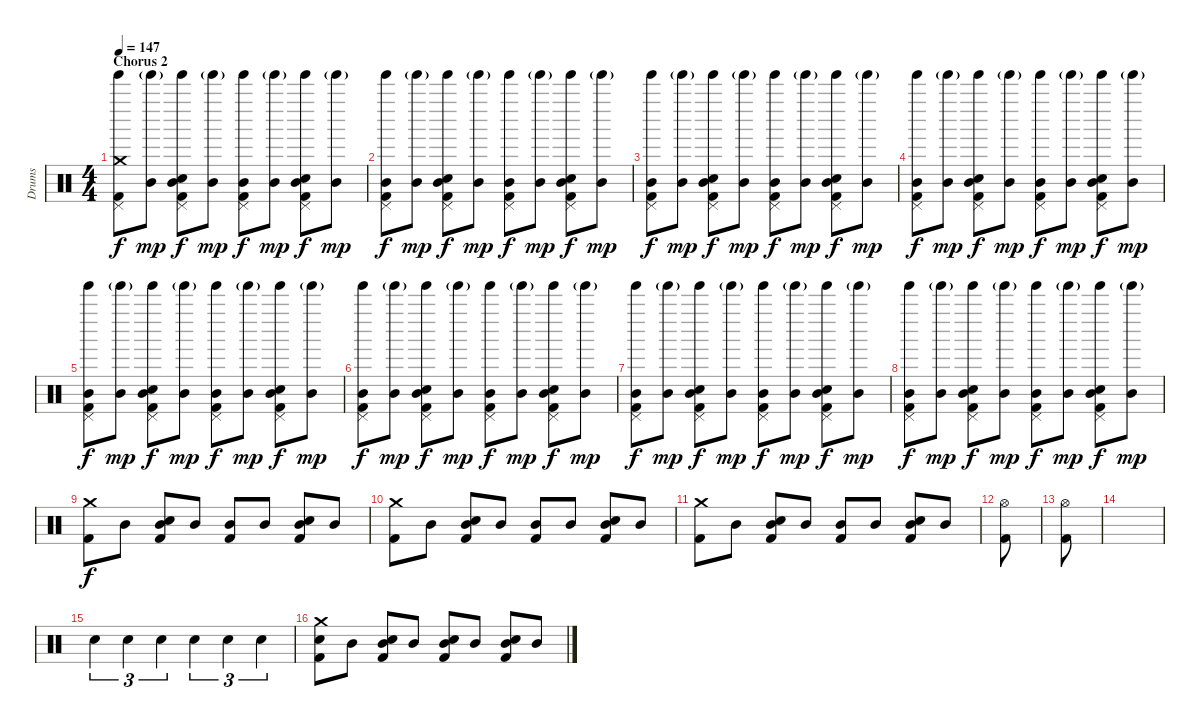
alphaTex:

\track ("Drums" "Drums") {instrument percussion}
\staff {score}
\articulation defaults
\ts (4 4)
\section ("" "Chorus 2")
\tempo 147
\clef neutral
\ks c
("Crash medium (hit)" "Tinkle Bell (hit)" "Pedal Hi-Hat (hit)" "Kick (hit) 2").8{dy f} ("Mid Tom (hit)" "Tinkle Bell (hit)"{g}).8{dy mp} ("Mid Tom (hit)" "Tinkle Bell (hit)" "Electric Snare (hit)" "Pedal Hi-Hat (hit)" "Kick (hit) 2").8{dy f} ("Mid Tom (hit)" "Tinkle Bell (hit)"{g}).8{dy mp} ("Mid Tom (hit)" "Tinkle Bell (hit)" "Pedal Hi-Hat (hit)" "Kick (hit) 2").8{dy f} ("Mid Tom (hit)" "Tinkle Bell (hit)"{g}).8{dy mp} ("Mid Tom (hit)" "Tinkle Bell (hit)" "Electric Snare (hit)" "Pedal Hi-Hat (hit)" "Kick (hit) 2").8{dy f} ("Mid Tom (hit)" "Tinkle Bell (hit)"{g}).8{dy mp} |
("Mid Tom (hit)" "Tinkle Bell (hit)" "Pedal Hi-Hat (hit)" "Kick (hit) 2").8{dy f} ("Mid Tom (hit)" "Tinkle Bell (hit)"{g}).8{dy mp} ("Mid Tom (hit)" "Tinkle Bell (hit)" "Electric Snare (hit)" "Pedal Hi-Hat (hit)" "Kick (hit) 2").8{dy f} ("Mid Tom (hit)" "Tinkle Bell (hit)"{g}).8{dy mp} ("Mid Tom (hit)" "Tinkle Bell (hit)" "Pedal Hi-Hat (hit)" "Kick (hit) 2").8{dy f} ("Mid Tom (hit)" "Tinkle Bell (hit)"{g}).8{dy mp} ("Mid Tom (hit)" "Tinkle Bell (hit)" "Electric Snare (hit)" "Pedal Hi-Hat (hit)" "Kick (hit) 2").8{dy f} ("Mid Tom (hit)" "Tinkle Bell (hit)"{g}).8{dy mp} |
("Mid Tom (hit)" "Tinkle Bell (hit)" "Pedal Hi-Hat (hit)" "Kick (hit) 2").8{dy f} ("Mid Tom (hit)" "Tinkle Bell (hit)"{g}).8{dy mp} ("Mid Tom (hit)" "Tinkle Bell (hit)" "Electric Snare (hit)" "Pedal Hi-Hat (hit)" "Kick (hit) 2").8{dy f} ("Mid Tom (hit)" "Tinkle Bell (hit)"{g}).8{dy mp} ("Mid Tom (hit)" "Tinkle Bell (hit)" "Pedal Hi-Hat (hit)" "Kick (hit) 2").8{dy f} ("Mid Tom (hit)" "Tinkle Bell (hit)"{g}).8{dy mp} ("Mid Tom (hit)" "Tinkle Bell (hit)" "Electric Snare (hit)" "Pedal Hi-Hat (hit)" "Kick (hit) 2").8{dy f} ("Mid Tom (hit)" "Tinkle Bell (hit)"{g}).8{dy mp} |
("Mid Tom (hit)" "Tinkle Bell (hit)" "Pedal Hi-Hat (hit)" "Kick (hit) 2").8{dy f} ("Mid Tom (hit)" "Tinkle Bell (hit)"{g}).8{dy mp} ("Mid Tom (hit)" "Tinkle Bell (hit)" "Electric Snare (hit)" "Pedal Hi-Hat (hit)" "Kick (hit) 2").8{dy f} ("Mid Tom (hit)" "Tinkle Bell (hit)"{g}).8{dy mp} ("Mid Tom (hit)" "Tinkle Bell (hit)" "Pedal Hi-Hat (hit)" "Kick (hit) 2").8{dy f} ("Mid Tom (hit)" "Tinkle Bell (hit)"{g}).8{dy mp} ("Mid Tom (hit)" "Tinkle Bell (hit)" "Electric Snare (hit)" "Pedal Hi-Hat (hit)" "Kick (hit) 2").8{dy f} ("Mid Tom (hit)" "Tinkle Bell (hit)"{g}).8{dy mp} |
("Mid Tom (hit)" "Tinkle Bell (hit)" "Pedal Hi-Hat (hit)" "Kick (hit) 2").8{dy f} ("Mid Tom (hit)" "Tinkle Bell (hit)"{g}).8{dy mp} ("Mid Tom (hit)" "Tinkle Bell (hit)" "Electric Snare (hit)" "Pedal Hi-Hat (hit)" "Kick (hit) 2").8{dy f} ("Mid Tom (hit)" "Tinkle Bell (hit)"{g}).8{dy mp} ("Mid Tom (hit)" "Tinkle Bell (hit)" "Pedal Hi-Hat (hit)" "Kick (hit) 2").8{dy f} ("Mid Tom (hit)" "Tinkle Bell (hit)"{g}).8{dy mp} ("Mid Tom (hit)" "Tinkle Bell (hit)" "Electric Snare (hit)" "Pedal Hi-Hat (hit)" "Kick (hit) 2").8{dy f} ("Mid Tom (hit)" "Tinkle Bell (hit)"{g}).8{dy mp} |
("Mid Tom (hit)" "Tinkle Bell (hit)" "Pedal Hi-Hat (hit)" "Kick (hit) 2").8{dy f} ("Mid Tom (hit)" "Tinkle Bell (hit)"{g}).8{dy mp} ("Mid Tom (hit)" "Tinkle Bell (hit)" "Electric Snare (hit)" "Pedal Hi-Hat (hit)" "Kick (hit) 2").8{dy f} ("Mid Tom (hit)" "Tinkle Bell (hit)"{g}).8{dy mp} ("Mid Tom (hit)" "Tinkle Bell (hit)" "Pedal Hi-Hat (hit)" "Kick (hit) 2").8{dy f} ("Mid Tom (hit)" "Tinkle Bell (hit)"{g}).8{dy mp} ("Mid Tom (hit)" "Tinkle Bell (hit)" "Electric Snare (hit)" "Pedal Hi-Hat (hit)" "Kick (hit) 2").8{dy f} ("Mid Tom (hit)" "Tinkle Bell (hit)"{g}).8{dy mp} |
("Mid Tom (hit)" "Tinkle Bell (hit)" "Pedal Hi-Hat (hit)" "Kick (hit) 2").8{dy f} ("Mid Tom (hit)" "Tinkle Bell (hit)"{g}).8{dy mp} ("Mid Tom (hit)" "Tinkle Bell (hit)" "Electric Snare (hit)" "Pedal Hi-Hat (hit)" "Kick (hit) 2").8{dy f} ("Mid Tom (hit)" "Tinkle Bell (hit)"{g}).8{dy mp} ("Mid Tom (hit)" "Tinkle Bell (hit)" "Pedal Hi-Hat (hit)" "Kick (hit) 2").8{dy f} ("Mid Tom (hit)" "Tinkle Bell (hit)"{g}).8{dy mp} ("Mid Tom (hit)" "Tinkle Bell (hit)" "Electric Snare (hit)" "Pedal Hi-Hat (hit)" "Kick (hit) 2").8{dy f} ("Mid Tom (hit)" "Tinkle Bell (hit)"{g}).8{dy mp} |
("Mid Tom (hit)" "Tinkle Bell (hit)" "Pedal Hi-Hat (hit)" "Kick (hit) 2").8{dy f} ("Mid Tom (hit)" "Tinkle Bell (hit)"{g}).8{dy mp} ("Mid Tom (hit)" "Tinkle Bell (hit)" "Electric Snare (hit)" "Pedal Hi-Hat (hit)" "Kick (hit) 2").8{dy f} ("Mid Tom (hit)" "Tinkle Bell (hit)"{g}).8{dy mp} ("Mid Tom (hit)" "Tinkle Bell (hit)" "Pedal Hi-Hat (hit)" "Kick (hit) 2").8{dy f} ("Mid Tom (hit)" "Tinkle Bell (hit)"{g}).8{dy mp} ("Mid Tom (hit)" "Tinkle Bell (hit)" "Electric Snare (hit)" "Pedal Hi-Hat (hit)" "Kick (hit) 2").8{dy f} ("Mid Tom (hit)" "Tinkle Bell (hit)"{g}).8{dy mp} |
("Crash medium (hit)" "Kick (hit) 2").8{dy f} "Mid Tom (hit)".8 ("Mid Tom (hit)" "Electric Snare (hit)" "Kick (hit) 2").8 "Mid Tom (hit)".8 ("Mid Tom (hit)" "Kick (hit) 2").8 "Mid Tom (hit)".8 ("Mid Tom (hit)" "Electric Snare (hit)" "Kick (hit) 2").8 "Mid Tom (hit)".8 |
("Crash medium (hit)" "Kick (hit) 2").8 "Mid Tom (hit)".8 ("Mid Tom (hit)" "Electric Snare (hit)" "Kick (hit) 2").8 "Mid Tom (hit)".8 ("Mid Tom (hit)" "Kick (hit) 2").8 "Mid Tom (hit)".8 ("Mid Tom (hit)" "Electric Snare (hit)" "Kick (hit) 2").8 "Mid Tom (hit)".8 |
("Crash medium (hit)" "Kick (hit) 2").8 "Mid Tom (hit)".8 ("Mid Tom (hit)" "Electric Snare (hit)" "Kick (hit) 2").8 "Mid Tom (hit)".8 ("Mid Tom (hit)" "Kick (hit) 2").8 "Mid Tom (hit)".8 ("Mid Tom (hit)" "Electric Snare (hit)" "Kick (hit) 2").8 "Mid Tom (hit)".8 |
("Hi-Hat (open)" "Kick (hit) 2").8 |
("Hi-Hat (open)" "Kick (hit) 2").8 |
|
"Electric Snare (hit)".4{tu (3 2)} "Electric Snare (hit)".4{tu (3 2)} "Electric Snare (hit)".4{tu (3 2)} "Electric Snare (hit)".4{tu (3 2)} "Electric Snare (hit)".4{tu (3 2)} "Electric Snare (hit)".4{tu (3 2)} |
("Crash medium (hit)" "Hand Clap (hit)" "Kick (hit) 2").8 "Mid Tom (hit)".8 ("Mid Tom (hit)" "Electric Snare (hit)" "Kick (hit) 2").8 "Mid Tom (hit)".8 ("Mid Tom (hit)" "Hand Clap (hit)" "Kick (hit) 2").8 "Mid Tom (hit)".8 ("Mid Tom (hit)" "Electric Snare (hit)" "Kick (hit) 2").8 "Mid Tom (hit)".8
